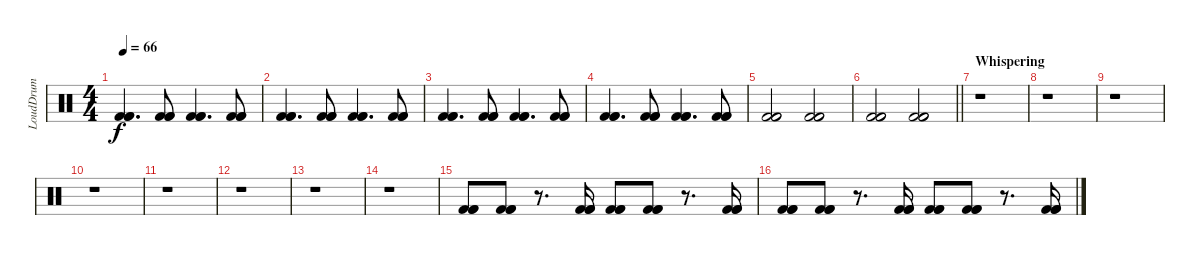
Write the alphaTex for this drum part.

\track ("LoudDrum" "LoudDrum") {instrument percussion}
\staff {score}
\articulation defaults
\ts (4 4)
\tempo 66
\clef neutral
\ks c
("Kick (hit) 2" "Kick (hit) 2" "Kick (hit) 2").4{d dy f} ("Kick (hit) 2" "Kick (hit) 2" "Kick (hit) 2").8 ("Kick (hit) 2" "Kick (hit) 2" "Kick (hit) 2").4{d} ("Kick (hit) 2" "Kick (hit) 2" "Kick (hit) 2").8 |
("Kick (hit) 2" "Kick (hit) 2" "Kick (hit) 2").4{d} ("Kick (hit) 2" "Kick (hit) 2" "Kick (hit) 2").8 ("Kick (hit) 2" "Kick (hit) 2" "Kick (hit) 2").4{d} ("Kick (hit) 2" "Kick (hit) 2" "Kick (hit) 2").8 |
("Kick (hit) 2" "Kick (hit) 2" "Kick (hit) 2").4{d} ("Kick (hit) 2" "Kick (hit) 2" "Kick (hit) 2").8 ("Kick (hit) 2" "Kick (hit) 2" "Kick (hit) 2").4{d} ("Kick (hit) 2" "Kick (hit) 2" "Kick (hit) 2").8 |
("Kick (hit) 2" "Kick (hit) 2" "Kick (hit) 2").4{d} ("Kick (hit) 2" "Kick (hit) 2" "Kick (hit) 2").8 ("Kick (hit) 2" "Kick (hit) 2" "Kick (hit) 2").4{d} ("Kick (hit) 2" "Kick (hit) 2" "Kick (hit) 2").8 |
("Kick (hit) 2" "Kick (hit) 2" "Kick (hit) 2").2 ("Kick (hit) 2" "Kick (hit) 2" "Kick (hit) 2").2 |
\barLineRight lightlight
("Kick (hit) 2" "Kick (hit) 2" "Kick (hit) 2").2 ("Kick (hit) 2" "Kick (hit) 2" "Kick (hit) 2").2 |
\section ("" "Whispering")
r.1 |
r.1 |
r.1 |
r.1 |
r.1 |
r.1 |
r.1 |
r.1 |
("Kick (hit) 2" "Kick (hit) 2" "Kick (hit) 2").8 ("Kick (hit) 2" "Kick (hit) 2" "Kick (hit) 2").8 r.8{d} ("Kick (hit) 2" "Kick (hit) 2" "Kick (hit) 2").16 ("Kick (hit) 2" "Kick (hit) 2" "Kick (hit) 2").8 ("Kick (hit) 2" "Kick (hit) 2" "Kick (hit) 2").8 r.8{d} ("Kick (hit) 2" "Kick (hit) 2" "Kick (hit) 2").16 |
("Kick (hit) 2" "Kick (hit) 2" "Kick (hit) 2").8 ("Kick (hit) 2" "Kick (hit) 2" "Kick (hit) 2").8 r.8{d} ("Kick (hit) 2" "Kick (hit) 2" "Kick (hit) 2").16 ("Kick (hit) 2" "Kick (hit) 2" "Kick (hit) 2").8 ("Kick (hit) 2" "Kick (hit) 2" "Kick (hit) 2").8 r.8{d} ("Kick (hit) 2" "Kick (hit) 2" "Kick (hit) 2").16
